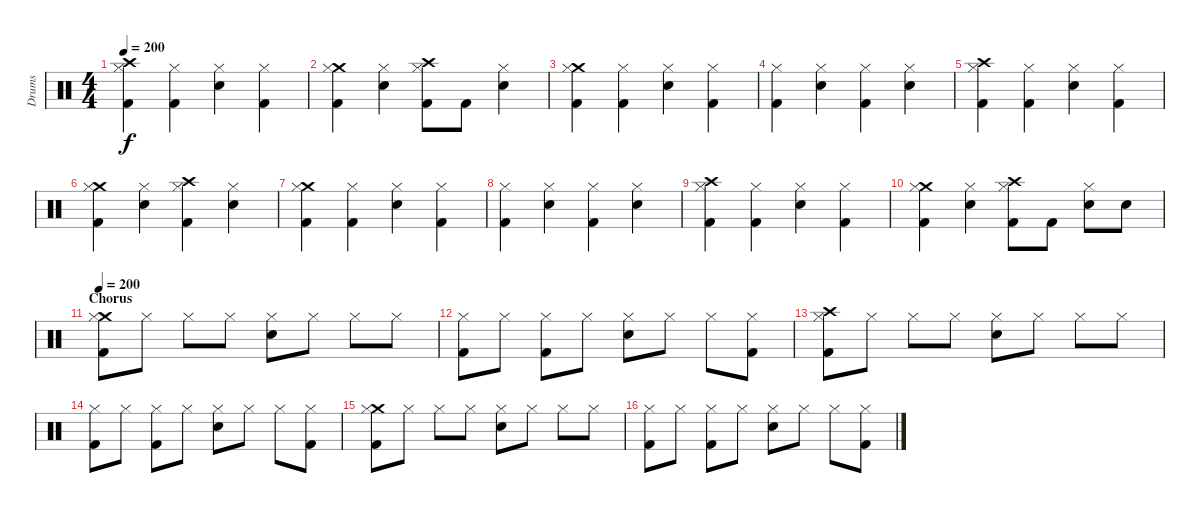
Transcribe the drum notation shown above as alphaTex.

\track ("Drums" "Drums") {instrument percussion}
\staff {score}
\articulation defaults
\ts (4 4)
\tempo 200
\clef neutral
\ks c
("Crash high (hit)" "Hi-Hat (closed)" "Kick (hit) 2").4{dy f} ("Hi-Hat (closed)" "Kick (hit) 2").4 ("Hi-Hat (closed)" "Electric Snare (hit)").4 ("Hi-Hat (closed)" "Kick (hit) 2").4 |
("Crash medium (hit)" "Hi-Hat (closed)" "Kick (hit) 2").4 ("Hi-Hat (closed)" "Electric Snare (hit)").4 ("Crash high (hit)" "Hi-Hat (closed)" "Kick (hit) 2").8 "Kick (hit) 2".8 ("Hi-Hat (closed)" "Electric Snare (hit)").4 |
("Crash medium (hit)" "Hi-Hat (closed)" "Kick (hit) 2").4 ("Hi-Hat (closed)" "Kick (hit) 2").4 ("Hi-Hat (closed)" "Electric Snare (hit)").4 ("Hi-Hat (closed)" "Kick (hit) 2").4 |
("Hi-Hat (closed)" "Kick (hit) 2").4 ("Hi-Hat (closed)" "Electric Snare (hit)").4 ("Hi-Hat (closed)" "Kick (hit) 2").4 ("Hi-Hat (closed)" "Electric Snare (hit)").4 |
("Crash high (hit)" "Hi-Hat (closed)" "Kick (hit) 2").4 ("Hi-Hat (closed)" "Kick (hit) 2").4 ("Hi-Hat (closed)" "Electric Snare (hit)").4 ("Hi-Hat (closed)" "Kick (hit) 2").4 |
("Crash medium (hit)" "Hi-Hat (closed)" "Kick (hit) 2").4 ("Hi-Hat (closed)" "Electric Snare (hit)").4 ("Crash high (hit)" "Hi-Hat (closed)" "Kick (hit) 2").4 ("Hi-Hat (closed)" "Electric Snare (hit)").4 |
("Crash medium (hit)" "Hi-Hat (closed)" "Kick (hit) 2").4 ("Hi-Hat (closed)" "Kick (hit) 2").4 ("Hi-Hat (closed)" "Electric Snare (hit)").4 ("Hi-Hat (closed)" "Kick (hit) 2").4 |
("Hi-Hat (closed)" "Kick (hit) 2").4 ("Hi-Hat (closed)" "Electric Snare (hit)").4 ("Hi-Hat (closed)" "Kick (hit) 2").4 ("Hi-Hat (closed)" "Electric Snare (hit)").4 |
("Crash high (hit)" "Hi-Hat (closed)" "Kick (hit) 2").4 ("Hi-Hat (closed)" "Kick (hit) 2").4 ("Hi-Hat (closed)" "Electric Snare (hit)").4 ("Hi-Hat (closed)" "Kick (hit) 2").4 |
("Crash medium (hit)" "Hi-Hat (closed)" "Kick (hit) 2").4 ("Hi-Hat (closed)" "Electric Snare (hit)").4 ("Crash high (hit)" "Hi-Hat (closed)" "Kick (hit) 2").8 "Kick (hit) 2".8 ("Hi-Hat (closed)" "Electric Snare (hit)").8 "Electric Snare (hit)".8 |
\section ("" "Chorus")
\tempo 200
("Crash medium (hit)" "Hi-Hat (closed)" "Kick (hit) 2").8 "Hi-Hat (closed)".8 "Hi-Hat (closed)".8 "Hi-Hat (closed)".8 ("Hi-Hat (closed)" "Electric Snare (hit)").8 "Hi-Hat (closed)".8 "Hi-Hat (closed)".8 "Hi-Hat (closed)".8 |
("Hi-Hat (closed)" "Kick (hit) 2").8 "Hi-Hat (closed)".8 ("Hi-Hat (closed)" "Kick (hit) 2").8 "Hi-Hat (closed)".8 ("Hi-Hat (closed)" "Electric Snare (hit)").8 "Hi-Hat (closed)".8 "Hi-Hat (closed)".8 ("Hi-Hat (closed)" "Kick (hit) 2").8 |
("Crash high (hit)" "Hi-Hat (closed)" "Kick (hit) 2").8 "Hi-Hat (closed)".8 "Hi-Hat (closed)".8 "Hi-Hat (closed)".8 ("Hi-Hat (closed)" "Electric Snare (hit)").8 "Hi-Hat (closed)".8 "Hi-Hat (closed)".8 "Hi-Hat (closed)".8 |
("Hi-Hat (closed)" "Kick (hit) 2").8 "Hi-Hat (closed)".8 ("Hi-Hat (closed)" "Kick (hit) 2").8 "Hi-Hat (closed)".8 ("Hi-Hat (closed)" "Electric Snare (hit)").8 "Hi-Hat (closed)".8 "Hi-Hat (closed)".8 ("Hi-Hat (closed)" "Kick (hit) 2").8 |
("Crash medium (hit)" "Hi-Hat (closed)" "Kick (hit) 2").8 "Hi-Hat (closed)".8 "Hi-Hat (closed)".8 "Hi-Hat (closed)".8 ("Hi-Hat (closed)" "Electric Snare (hit)").8 "Hi-Hat (closed)".8 "Hi-Hat (closed)".8 "Hi-Hat (closed)".8 |
("Hi-Hat (closed)" "Kick (hit) 2").8 "Hi-Hat (closed)".8 ("Hi-Hat (closed)" "Kick (hit) 2").8 "Hi-Hat (closed)".8 ("Hi-Hat (closed)" "Electric Snare (hit)").8 "Hi-Hat (closed)".8 "Hi-Hat (closed)".8 ("Hi-Hat (closed)" "Kick (hit) 2").8
